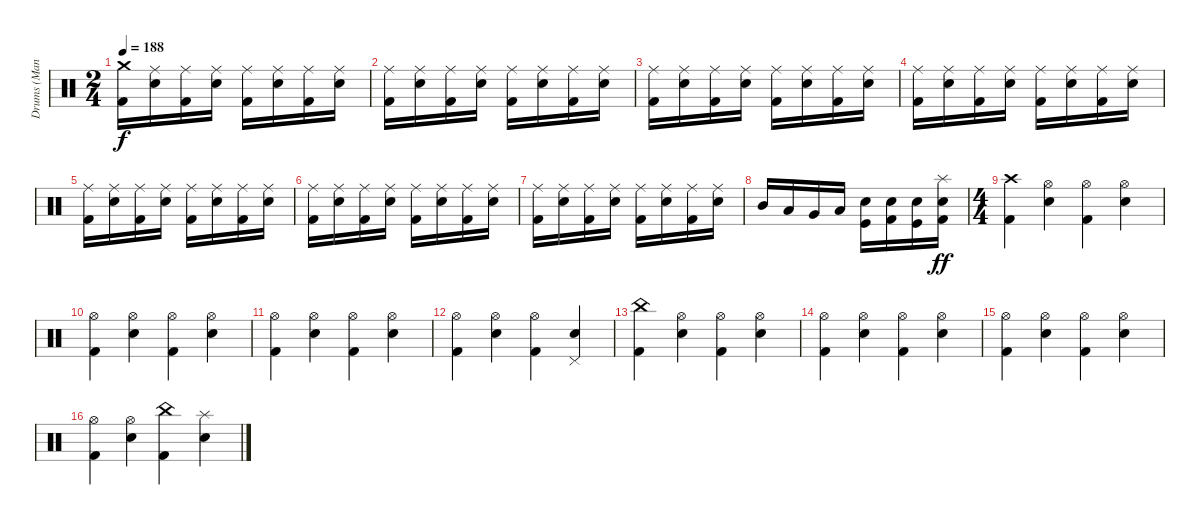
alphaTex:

\track ("Drums (Manheim)" "Drums (Man") {instrument percussion}
\staff {score}
\articulation defaults
\ts (2 4)
\tempo 188
\clef neutral
\ks c
("Crash medium (hit)" "Kick (hit) 2").16{dy f} ("Ride (middle)" "Electric Snare (hit)").16 ("Ride (middle)" "Kick (hit) 2").16 ("Ride (middle)" "Electric Snare (hit)").16 ("Ride (middle)" "Kick (hit) 2").16 ("Ride (middle)" "Electric Snare (hit)").16 ("Ride (middle)" "Kick (hit) 2").16 ("Ride (middle)" "Electric Snare (hit)").16 |
("Ride (middle)" "Kick (hit) 2").16 ("Ride (middle)" "Electric Snare (hit)").16 ("Ride (middle)" "Kick (hit) 2").16 ("Ride (middle)" "Electric Snare (hit)").16 ("Ride (middle)" "Kick (hit) 2").16 ("Ride (middle)" "Electric Snare (hit)").16 ("Ride (middle)" "Kick (hit) 2").16 ("Ride (middle)" "Electric Snare (hit)").16 |
("Ride (middle)" "Kick (hit) 2").16 ("Ride (middle)" "Electric Snare (hit)").16 ("Ride (middle)" "Kick (hit) 2").16 ("Ride (middle)" "Electric Snare (hit)").16 ("Ride (middle)" "Kick (hit) 2").16 ("Ride (middle)" "Electric Snare (hit)").16 ("Ride (middle)" "Kick (hit) 2").16 ("Ride (middle)" "Electric Snare (hit)").16 |
("Ride (middle)" "Kick (hit) 2").16 ("Ride (middle)" "Electric Snare (hit)").16 ("Ride (middle)" "Kick (hit) 2").16 ("Ride (middle)" "Electric Snare (hit)").16 ("Ride (middle)" "Kick (hit) 2").16 ("Ride (middle)" "Electric Snare (hit)").16 ("Ride (middle)" "Kick (hit) 2").16 ("Ride (middle)" "Electric Snare (hit)").16 |
("Ride (middle)" "Kick (hit) 2").16 ("Ride (middle)" "Electric Snare (hit)").16 ("Ride (middle)" "Kick (hit) 2").16 ("Ride (middle)" "Electric Snare (hit)").16 ("Ride (middle)" "Kick (hit) 2").16 ("Ride (middle)" "Electric Snare (hit)").16 ("Ride (middle)" "Kick (hit) 2").16 ("Ride (middle)" "Electric Snare (hit)").16 |
("Ride (middle)" "Kick (hit) 2").16 ("Ride (middle)" "Electric Snare (hit)").16 ("Ride (middle)" "Kick (hit) 2").16 ("Ride (middle)" "Electric Snare (hit)").16 ("Ride (middle)" "Kick (hit) 2").16 ("Ride (middle)" "Electric Snare (hit)").16 ("Ride (middle)" "Kick (hit) 2").16 ("Ride (middle)" "Electric Snare (hit)").16 |
("Ride (middle)" "Kick (hit) 2").16 ("Ride (middle)" "Electric Snare (hit)").16 ("Ride (middle)" "Kick (hit) 2").16 ("Ride (middle)" "Electric Snare (hit)").16 ("Ride (middle)" "Kick (hit) 2").16 ("Ride (middle)" "Electric Snare (hit)").16 ("Ride (middle)" "Kick (hit) 2").16 ("Ride (middle)" "Electric Snare (hit)").16 |
"Mid Tom (hit)".16 "Low Tom (hit)".16 "Very Low Tom (hit)".16 "Low Floor Tom (hit)".16 ("Electric Snare (hit)" "Kick (hit)").16 ("Electric Snare (hit)" "Kick (hit) 2").16 ("Electric Snare (hit)" "Kick (hit)").16 ("Splash (hit)" "Electric Snare (hit)" "Kick (hit) 2").16{dy ff} |
\ts (4 4)
("Crash high (hit)" "Kick (hit) 2").4 ("Hi-Hat (open)" "Electric Snare (hit)").4 ("Hi-Hat (open)" "Kick (hit) 2").4 ("Hi-Hat (open)" "Electric Snare (hit)").4 |
("Hi-Hat (open)" "Kick (hit) 2").4 ("Hi-Hat (open)" "Electric Snare (hit)").4 ("Hi-Hat (open)" "Kick (hit) 2").4 ("Hi-Hat (open)" "Electric Snare (hit)").4 |
("Hi-Hat (open)" "Kick (hit) 2").4 ("Hi-Hat (open)" "Electric Snare (hit)").4 ("Hi-Hat (open)" "Kick (hit) 2").4 ("Hi-Hat (open)" "Electric Snare (hit)").4 |
("Hi-Hat (open)" "Kick (hit) 2").4 ("Hi-Hat (open)" "Electric Snare (hit)").4 ("Hi-Hat (open)" "Kick (hit) 2").4 ("Pedal Hi-Hat (hit)" "Electric Snare (hit)").4 |
("China (hit)" "Kick (hit) 2").4 ("Hi-Hat (open)" "Electric Snare (hit)").4 ("Hi-Hat (open)" "Kick (hit) 2").4 ("Hi-Hat (open)" "Electric Snare (hit)").4 |
("Hi-Hat (open)" "Kick (hit) 2").4 ("Hi-Hat (open)" "Electric Snare (hit)").4 ("Hi-Hat (open)" "Kick (hit) 2").4 ("Hi-Hat (open)" "Electric Snare (hit)").4 |
("Hi-Hat (open)" "Kick (hit) 2").4 ("Hi-Hat (open)" "Electric Snare (hit)").4 ("Hi-Hat (open)" "Kick (hit) 2").4 ("Hi-Hat (open)" "Electric Snare (hit)").4 |
("Hi-Hat (open)" "Kick (hit) 2").4 ("Hi-Hat (open)" "Electric Snare (hit)").4 ("China (hit)" "Kick (hit) 2").4 ("Splash (hit)" "Electric Snare (hit)").4
